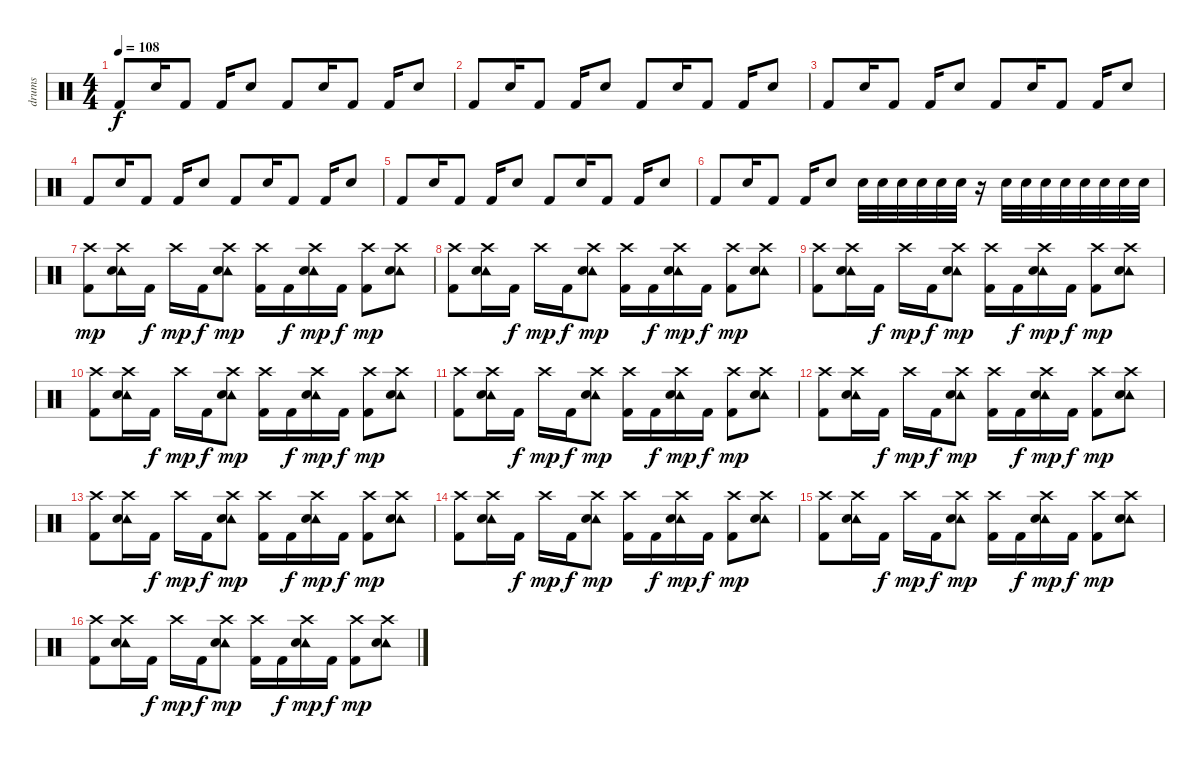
\track ("drums" "drums") {instrument percussion}
\staff {score}
\articulation defaults
\ts (4 4)
\tempo 108
\clef neutral
\ks c "Kick (hit) 2".8{dy f} "Snare (hit) 2".16 "Kick (hit) 2".8 "Kick (hit) 2".16 "Snare (hit) 2".8 "Kick (hit) 2".8 "Snare (hit) 2".16 "Kick (hit) 2".8 "Kick (hit) 2".16 "Snare (hit) 2".8
|
"Kick (hit) 2".8 "Snare (hit) 2".16 "Kick (hit) 2".8 "Kick (hit) 2".16 "Snare (hit) 2".8 "Kick (hit) 2".8 "Snare (hit) 2".16 "Kick (hit) 2".8 "Kick (hit) 2".16 "Snare (hit) 2".8 |
"Kick (hit) 2".8 "Snare (hit) 2".16 "Kick (hit) 2".8 "Kick (hit) 2".16 "Snare (hit) 2".8 "Kick (hit) 2".8 "Snare (hit) 2".16 "Kick (hit) 2".8 "Kick (hit) 2".16 "Snare (hit) 2".8 |
"Kick (hit) 2".8 "Snare (hit) 2".16 "Kick (hit) 2".8 "Kick (hit) 2".16 "Snare (hit) 2".8 "Kick (hit) 2".8 "Snare (hit) 2".16 "Kick (hit) 2".8 "Kick (hit) 2".16 "Snare (hit) 2".8 |
"Kick (hit) 2".8 "Snare (hit) 2".16 "Kick (hit) 2".8 "Kick (hit) 2".16 "Snare (hit) 2".8 "Kick (hit) 2".8 "Snare (hit) 2".16 "Kick (hit) 2".8 "Kick (hit) 2".16 "Snare (hit) 2".8 |
"Kick (hit) 2".8 "Snare (hit) 2".16 "Kick (hit) 2".8 "Kick (hit) 2".16 "Snare (hit) 2".8 "Snare (hit) 2".32 "Snare (hit) 2".32 "Snare (hit) 2".32 "Snare (hit) 2".32 "Snare (hit) 2".32 "Snare (hit) 2".32 r.16 "Snare (hit) 2".32 "Snare (hit) 2".32 "Snare (hit) 2".32 "Snare (hit) 2".32 "Snare (hit) 2".32 "Snare (hit) 2".32 "Snare (hit) 2".32 "Snare (hit) 2".32 |
("Crash high (hit)" "Kick (hit) 2").8{dy mp} ("Tambourine (hit)" "Crash high (hit)" "Snare (hit) 2").16 "Kick (hit) 2".16{dy f} "Crash high (hit)".16{dy mp} "Kick (hit) 2".16{dy f} ("Tambourine (hit)" "Crash high (hit)" "Snare (hit) 2").8{dy mp} ("Crash high (hit)" "Kick (hit) 2").16 "Kick (hit) 2".16{dy f} ("Tambourine (hit)" "Crash high (hit)" "Snare (hit) 2").16{dy mp} "Kick (hit) 2".16{dy f} ("Crash high (hit)" "Kick (hit) 2").8{dy mp} ("Tambourine (hit)" "Crash high (hit)" "Snare (hit) 2").8 |
("Crash high (hit)" "Kick (hit) 2").8 ("Tambourine (hit)" "Crash high (hit)" "Snare (hit) 2").16 "Kick (hit) 2".16{dy f} "Crash high (hit)".16{dy mp} "Kick (hit) 2".16{dy f} ("Tambourine (hit)" "Crash high (hit)" "Snare (hit) 2").8{dy mp} ("Crash high (hit)" "Kick (hit) 2").16 "Kick (hit) 2".16{dy f} ("Tambourine (hit)" "Crash high (hit)" "Snare (hit) 2").16{dy mp} "Kick (hit) 2".16{dy f} ("Crash high (hit)" "Kick (hit) 2").8{dy mp} ("Tambourine (hit)" "Crash high (hit)" "Snare (hit) 2").8 |
("Crash high (hit)" "Kick (hit) 2").8 ("Tambourine (hit)" "Crash high (hit)" "Snare (hit) 2").16 "Kick (hit) 2".16{dy f} "Crash high (hit)".16{dy mp} "Kick (hit) 2".16{dy f} ("Tambourine (hit)" "Crash high (hit)" "Snare (hit) 2").8{dy mp} ("Crash high (hit)" "Kick (hit) 2").16 "Kick (hit) 2".16{dy f} ("Tambourine (hit)" "Crash high (hit)" "Snare (hit) 2").16{dy mp} "Kick (hit) 2".16{dy f} ("Crash high (hit)" "Kick (hit) 2").8{dy mp} ("Tambourine (hit)" "Crash high (hit)" "Snare (hit) 2").8 |
("Crash high (hit)" "Kick (hit) 2").8 ("Tambourine (hit)" "Crash high (hit)" "Snare (hit) 2").16 "Kick (hit) 2".16{dy f} "Crash high (hit)".16{dy mp} "Kick (hit) 2".16{dy f} ("Tambourine (hit)" "Crash high (hit)" "Snare (hit) 2").8{dy mp} ("Crash high (hit)" "Kick (hit) 2").16 "Kick (hit) 2".16{dy f} ("Tambourine (hit)" "Crash high (hit)" "Snare (hit) 2").16{dy mp} "Kick (hit) 2".16{dy f} ("Crash high (hit)" "Kick (hit) 2").8{dy mp} ("Tambourine (hit)" "Crash high (hit)" "Snare (hit) 2").8 |
("Crash high (hit)" "Kick (hit) 2").8 ("Tambourine (hit)" "Crash high (hit)" "Snare (hit) 2").16 "Kick (hit) 2".16{dy f} "Crash high (hit)".16{dy mp} "Kick (hit) 2".16{dy f} ("Tambourine (hit)" "Crash high (hit)" "Snare (hit) 2").8{dy mp} ("Crash high (hit)" "Kick (hit) 2").16 "Kick (hit) 2".16{dy f} ("Tambourine (hit)" "Crash high (hit)" "Snare (hit) 2").16{dy mp} "Kick (hit) 2".16{dy f} ("Crash high (hit)" "Kick (hit) 2").8{dy mp} ("Tambourine (hit)" "Crash high (hit)" "Snare (hit) 2").8 |
("Crash high (hit)" "Kick (hit) 2").8 ("Tambourine (hit)" "Crash high (hit)" "Snare (hit) 2").16 "Kick (hit) 2".16{dy f} "Crash high (hit)".16{dy mp} "Kick (hit) 2".16{dy f} ("Tambourine (hit)" "Crash high (hit)" "Snare (hit) 2").8{dy mp} ("Crash high (hit)" "Kick (hit) 2").16 "Kick (hit) 2".16{dy f} ("Tambourine (hit)" "Crash high (hit)" "Snare (hit) 2").16{dy mp} "Kick (hit) 2".16{dy f} ("Crash high (hit)" "Kick (hit) 2").8{dy mp} ("Tambourine (hit)" "Crash high (hit)" "Snare (hit) 2").8 |
("Crash high (hit)" "Kick (hit) 2").8 ("Tambourine (hit)" "Crash high (hit)" "Snare (hit) 2").16 "Kick (hit) 2".16{dy f} "Crash high (hit)".16{dy mp} "Kick (hit) 2".16{dy f} ("Tambourine (hit)" "Crash high (hit)" "Snare (hit) 2").8{dy mp} ("Crash high (hit)" "Kick (hit) 2").16 "Kick (hit) 2".16{dy f} ("Tambourine (hit)" "Crash high (hit)" "Snare (hit) 2").16{dy mp} "Kick (hit) 2".16{dy f} ("Crash high (hit)" "Kick (hit) 2").8{dy mp} ("Tambourine (hit)" "Crash high (hit)" "Snare (hit) 2").8 |
("Crash high (hit)" "Kick (hit) 2").8 ("Tambourine (hit)" "Crash high (hit)" "Snare (hit) 2").16 "Kick (hit) 2".16{dy f} "Crash high (hit)".16{dy mp} "Kick (hit) 2".16{dy f} ("Tambourine (hit)" "Crash high (hit)" "Snare (hit) 2").8{dy mp} ("Crash high (hit)" "Kick (hit) 2").16 "Kick (hit) 2".16{dy f} ("Tambourine (hit)" "Crash high (hit)" "Snare (hit) 2").16{dy mp} "Kick (hit) 2".16{dy f} ("Crash high (hit)" "Kick (hit) 2").8{dy mp} ("Tambourine (hit)" "Crash high (hit)" "Snare (hit) 2").8 |
("Crash high (hit)" "Kick (hit) 2").8 ("Tambourine (hit)" "Crash high (hit)" "Snare (hit) 2").16 "Kick (hit) 2".16{dy f} "Crash high (hit)".16{dy mp} "Kick (hit) 2".16{dy f} ("Tambourine (hit)" "Crash high (hit)" "Snare (hit) 2").8{dy mp} ("Crash high (hit)" "Kick (hit) 2").16 "Kick (hit) 2".16{dy f} ("Tambourine (hit)" "Crash high (hit)" "Snare (hit) 2").16{dy mp} "Kick (hit) 2".16{dy f} ("Crash high (hit)" "Kick (hit) 2").8{dy mp} ("Tambourine (hit)" "Crash high (hit)" "Snare (hit) 2").8 |
("Crash high (hit)" "Kick (hit) 2").8 ("Tambourine (hit)" "Crash high (hit)" "Snare (hit) 2").16 "Kick (hit) 2".16{dy f} "Crash high (hit)".16{dy mp} "Kick (hit) 2".16{dy f} ("Tambourine (hit)" "Crash high (hit)" "Snare (hit) 2").8{dy mp} ("Crash high (hit)" "Kick (hit) 2").16 "Kick (hit) 2".16{dy f} ("Tambourine (hit)" "Crash high (hit)" "Snare (hit) 2").16{dy mp} "Kick (hit) 2".16{dy f} ("Crash high (hit)" "Kick (hit) 2").8{dy mp} ("Tambourine (hit)" "Crash high (hit)" "Snare (hit) 2").8
